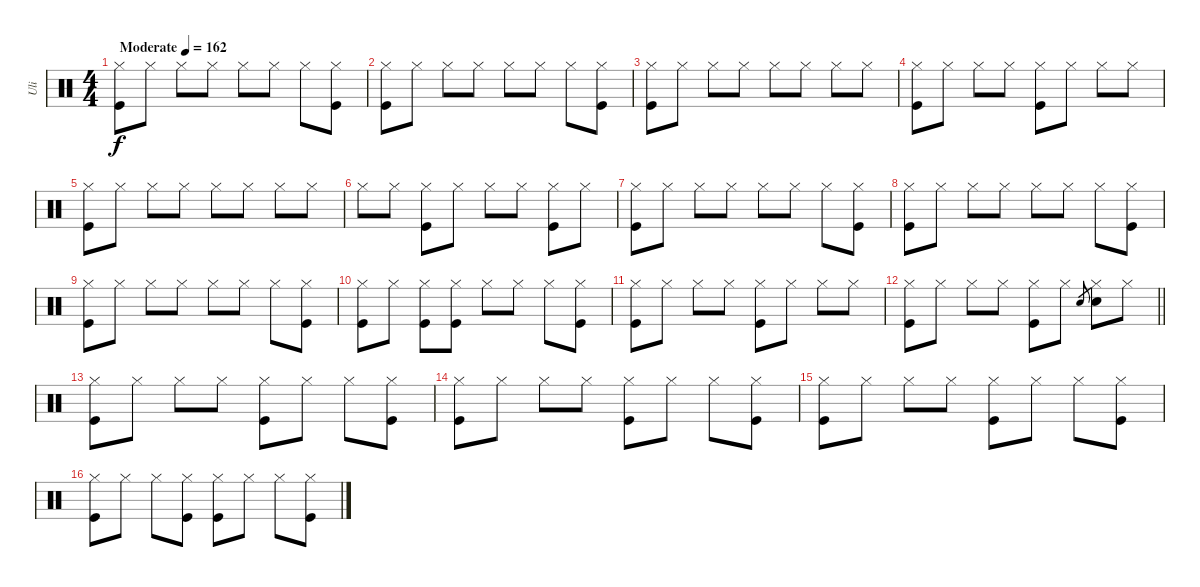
\track ("Uli" "Uli") {instrument percussion}
\staff {score}
\articulation defaults
\ts (4 4)
\tempo (162 "Moderate")
\clef neutral
\ks aminor
("Hi-Hat (closed)" "Kick (hit)").8{dy f} "Hi-Hat (closed)".8 "Hi-Hat (closed)".8 "Hi-Hat (closed)".8 "Hi-Hat (closed)".8 "Hi-Hat (closed)".8 "Hi-Hat (closed)".8 ("Hi-Hat (closed)" "Kick (hit)").8 |
("Hi-Hat (closed)" "Kick (hit)").8 "Hi-Hat (closed)".8 "Hi-Hat (closed)".8 "Hi-Hat (closed)".8 "Hi-Hat (closed)".8 "Hi-Hat (closed)".8 "Hi-Hat (closed)".8 ("Hi-Hat (closed)" "Kick (hit)").8 |
("Hi-Hat (closed)" "Kick (hit)").8 "Hi-Hat (closed)".8 "Hi-Hat (closed)".8 "Hi-Hat (closed)".8 "Hi-Hat (closed)".8 "Hi-Hat (closed)".8 "Hi-Hat (closed)".8 "Hi-Hat (closed)".8 |
("Hi-Hat (closed)" "Kick (hit)").8 "Hi-Hat (closed)".8 "Hi-Hat (closed)".8 "Hi-Hat (closed)".8 ("Hi-Hat (closed)" "Kick (hit)").8 "Hi-Hat (closed)".8 "Hi-Hat (closed)".8 "Hi-Hat (closed)".8 |
("Hi-Hat (closed)" "Kick (hit)").8 "Hi-Hat (closed)".8 "Hi-Hat (closed)".8 "Hi-Hat (closed)".8 "Hi-Hat (closed)".8 "Hi-Hat (closed)".8 "Hi-Hat (closed)".8 "Hi-Hat (closed)".8 |
"Hi-Hat (closed)".8 "Hi-Hat (closed)".8 ("Hi-Hat (closed)" "Kick (hit)").8 "Hi-Hat (closed)".8 "Hi-Hat (closed)".8 "Hi-Hat (closed)".8 ("Hi-Hat (closed)" "Kick (hit)").8 "Hi-Hat (closed)".8 |
("Hi-Hat (closed)" "Kick (hit)").8 "Hi-Hat (closed)".8 "Hi-Hat (closed)".8 "Hi-Hat (closed)".8 "Hi-Hat (closed)".8 "Hi-Hat (closed)".8 "Hi-Hat (closed)".8 ("Hi-Hat (closed)" "Kick (hit)").8 |
("Hi-Hat (closed)" "Kick (hit)").8 "Hi-Hat (closed)".8 "Hi-Hat (closed)".8 "Hi-Hat (closed)".8 "Hi-Hat (closed)".8 "Hi-Hat (closed)".8 "Hi-Hat (closed)".8 ("Hi-Hat (closed)" "Kick (hit)").8 |
("Hi-Hat (closed)" "Kick (hit)").8 "Hi-Hat (closed)".8 "Hi-Hat (closed)".8 "Hi-Hat (closed)".8 "Hi-Hat (closed)".8 "Hi-Hat (closed)".8 "Hi-Hat (closed)".8 ("Hi-Hat (closed)" "Kick (hit)").8 |
("Hi-Hat (closed)" "Kick (hit)").8 "Hi-Hat (closed)".8 ("Hi-Hat (closed)" "Kick (hit)").8 ("Hi-Hat (closed)" "Kick (hit)").8 "Hi-Hat (closed)".8 "Hi-Hat (closed)".8 "Hi-Hat (closed)".8 ("Hi-Hat (closed)" "Kick (hit)").8 |
("Hi-Hat (closed)" "Kick (hit)").8 "Hi-Hat (closed)".8 "Hi-Hat (closed)".8 "Hi-Hat (closed)".8 ("Hi-Hat (closed)" "Kick (hit)").8 "Hi-Hat (closed)".8 "Hi-Hat (closed)".8 "Hi-Hat (closed)".8 |
\barLineRight lightlight
("Hi-Hat (closed)" "Kick (hit)").8 "Hi-Hat (closed)".8 "Hi-Hat (closed)".8 "Hi-Hat (closed)".8 ("Hi-Hat (closed)" "Kick (hit)").8 "Hi-Hat (closed)".8 "Snare (hit) 2".8{gr} ("Hi-Hat (closed)" "Snare (hit) 2").8 "Hi-Hat (closed)".8 |
("Hi-Hat (closed)" "Kick (hit)").8 "Hi-Hat (closed)".8 "Hi-Hat (closed)".8 "Hi-Hat (closed)".8 ("Hi-Hat (closed)" "Kick (hit)").8 "Hi-Hat (closed)".8 "Hi-Hat (closed)".8 ("Hi-Hat (closed)" "Kick (hit)").8 |
("Hi-Hat (closed)" "Kick (hit)").8 "Hi-Hat (closed)".8 "Hi-Hat (closed)".8 "Hi-Hat (closed)".8 ("Hi-Hat (closed)" "Kick (hit)").8 "Hi-Hat (closed)".8 "Hi-Hat (closed)".8 ("Hi-Hat (closed)" "Kick (hit)").8 |
("Hi-Hat (closed)" "Kick (hit)").8 "Hi-Hat (closed)".8 "Hi-Hat (closed)".8 "Hi-Hat (closed)".8 ("Hi-Hat (closed)" "Kick (hit)").8 "Hi-Hat (closed)".8 "Hi-Hat (closed)".8 ("Hi-Hat (closed)" "Kick (hit)").8 |
("Hi-Hat (closed)" "Kick (hit)").8 "Hi-Hat (closed)".8 "Hi-Hat (closed)".8 ("Hi-Hat (closed)" "Kick (hit)").8 ("Hi-Hat (closed)" "Kick (hit)").8 "Hi-Hat (closed)".8 "Hi-Hat (closed)".8 ("Hi-Hat (closed)" "Kick (hit)").8
